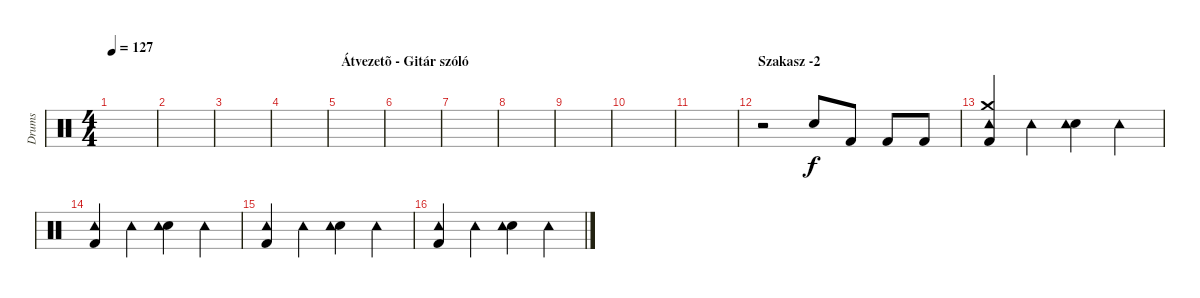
\track ("Drums" "Drums") {instrument percussion}
\staff {score}
\articulation defaults
\ts (4 4)
\tempo 127
\clef neutral
\ks c
|
|
|
|
\section ("" "Átvezetõ - Gitár szóló")
|
|
|
|
|
|
|
\section ("" "Szakasz -2")
r.2 "Snare (hit) 2".8 "Kick (hit) 2".8 "Kick (hit) 2".8 "Kick (hit) 2".8 |
("Crash medium (hit)" "Kick (hit) 2" "Tambourine (hit)").4 "Tambourine (hit)".4 ("Snare (hit) 2" "Tambourine (hit)").4 "Tambourine (hit)".4 |
("Kick (hit) 2" "Tambourine (hit)").4 "Tambourine (hit)".4 ("Snare (hit) 2" "Tambourine (hit)").4 "Tambourine (hit)".4 |
("Kick (hit) 2" "Tambourine (hit)").4 "Tambourine (hit)".4 ("Snare (hit) 2" "Tambourine (hit)").4 "Tambourine (hit)".4 |
("Kick (hit) 2" "Tambourine (hit)").4 "Tambourine (hit)".4 ("Snare (hit) 2" "Tambourine (hit)").4 "Tambourine (hit)".4
